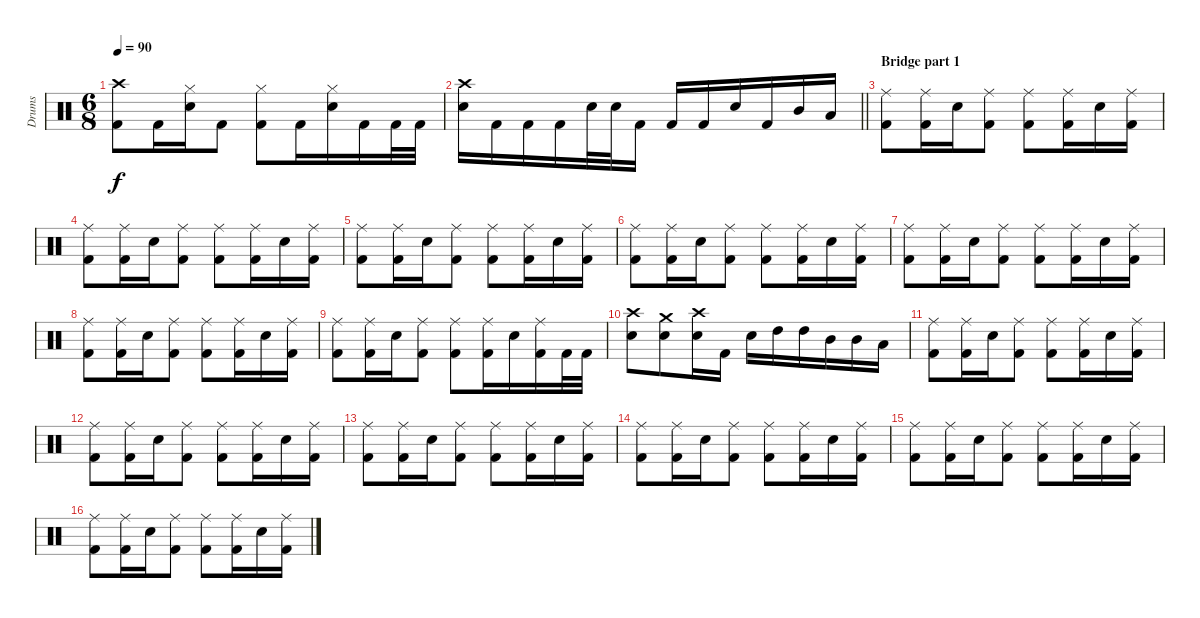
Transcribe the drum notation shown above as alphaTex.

\track ("Drums" "Drums") {instrument percussion}
\staff {score}
\articulation defaults
\ts (6 8)
\tempo 90
\clef neutral
\ks c
("Crash high (hit)" "Kick (hit) 2").8{dy f} "Kick (hit) 2".16 ("Hi-Hat (closed)" "Snare (hit) 2").16 "Kick (hit) 2".8 ("Hi-Hat (closed)" "Kick (hit) 2").8 "Kick (hit) 2".16 ("Hi-Hat (closed)" "Snare (hit) 2").16 "Kick (hit) 2".16 "Kick (hit) 2".32 "Kick (hit) 2".32 |
\barLineRight lightlight
("Crash high (hit)" "Snare (hit) 2").16 "Kick (hit) 2".16 "Kick (hit) 2".16 "Kick (hit) 2".16 "Snare (hit) 2".32 "Snare (hit) 2".32 "Kick (hit) 2".16 "Kick (hit) 2".16 "Kick (hit) 2".16 "Snare (hit) 2".16 "Kick (hit) 2".16 "Mid Tom (hit)".16 "Low Tom (hit)".16 |
\section ("" "Bridge part 1")
("Ride (middle)" "Kick (hit) 2").8 ("Ride (middle)" "Kick (hit) 2").16 "Snare (hit) 2".16 ("Ride (middle)" "Kick (hit) 2").8 ("Ride (middle)" "Kick (hit) 2").8 ("Ride (middle)" "Kick (hit) 2").16 "Snare (hit) 2".16 ("Ride (middle)" "Kick (hit) 2").16 |
("Ride (middle)" "Kick (hit) 2").8 ("Ride (middle)" "Kick (hit) 2").16 "Snare (hit) 2".16 ("Ride (middle)" "Kick (hit) 2").8 ("Ride (middle)" "Kick (hit) 2").8 ("Ride (middle)" "Kick (hit) 2").16 "Snare (hit) 2".16 ("Ride (middle)" "Kick (hit) 2").16 |
("Ride (middle)" "Kick (hit) 2").8 ("Ride (middle)" "Kick (hit) 2").16 "Snare (hit) 2".16 ("Ride (middle)" "Kick (hit) 2").8 ("Ride (middle)" "Kick (hit) 2").8 ("Ride (middle)" "Kick (hit) 2").16 "Snare (hit) 2".16 ("Ride (middle)" "Kick (hit) 2").16 |
("Ride (middle)" "Kick (hit) 2").8 ("Ride (middle)" "Kick (hit) 2").16 "Snare (hit) 2".16 ("Ride (middle)" "Kick (hit) 2").8 ("Ride (middle)" "Kick (hit) 2").8 ("Ride (middle)" "Kick (hit) 2").16 "Snare (hit) 2".16 ("Ride (middle)" "Kick (hit) 2").16 |
("Ride (middle)" "Kick (hit) 2").8 ("Ride (middle)" "Kick (hit) 2").16 "Snare (hit) 2".16 ("Ride (middle)" "Kick (hit) 2").8 ("Ride (middle)" "Kick (hit) 2").8 ("Ride (middle)" "Kick (hit) 2").16 "Snare (hit) 2".16 ("Ride (middle)" "Kick (hit) 2").16 |
("Ride (middle)" "Kick (hit) 2").8 ("Ride (middle)" "Kick (hit) 2").16 "Snare (hit) 2".16 ("Ride (middle)" "Kick (hit) 2").8 ("Ride (middle)" "Kick (hit) 2").8 ("Ride (middle)" "Kick (hit) 2").16 "Snare (hit) 2".16 ("Ride (middle)" "Kick (hit) 2").16 |
("Ride (middle)" "Kick (hit) 2").8 ("Ride (middle)" "Kick (hit) 2").16 "Snare (hit) 2".16 ("Ride (middle)" "Kick (hit) 2").8 ("Ride (middle)" "Kick (hit) 2").8 ("Ride (middle)" "Kick (hit) 2").16 "Snare (hit) 2".16 ("Ride (middle)" "Kick (hit) 2").16 "Kick (hit) 2".32 "Kick (hit) 2".32 |
("Crash high (hit)" "Snare (hit) 2").8 ("Crash medium (hit)" "Snare (hit) 2").8 ("Crash high (hit)" "Snare (hit) 2").16 "Kick (hit) 2".16 "Snare (hit) 2".16 "High Tom (hit)".16 "High Tom (hit)".16 "Mid Tom (hit)".16 "Mid Tom (hit)".16 "Low Tom (hit)".16 |
("Ride (middle)" "Kick (hit) 2").8 ("Ride (middle)" "Kick (hit) 2").16 "Snare (hit) 2".16 ("Ride (middle)" "Kick (hit) 2").8 ("Ride (middle)" "Kick (hit) 2").8 ("Ride (middle)" "Kick (hit) 2").16 "Snare (hit) 2".16 ("Ride (middle)" "Kick (hit) 2").16 |
("Ride (middle)" "Kick (hit) 2").8 ("Ride (middle)" "Kick (hit) 2").16 "Snare (hit) 2".16 ("Ride (middle)" "Kick (hit) 2").8 ("Ride (middle)" "Kick (hit) 2").8 ("Ride (middle)" "Kick (hit) 2").16 "Snare (hit) 2".16 ("Ride (middle)" "Kick (hit) 2").16 |
("Ride (middle)" "Kick (hit) 2").8 ("Ride (middle)" "Kick (hit) 2").16 "Snare (hit) 2".16 ("Ride (middle)" "Kick (hit) 2").8 ("Ride (middle)" "Kick (hit) 2").8 ("Ride (middle)" "Kick (hit) 2").16 "Snare (hit) 2".16 ("Ride (middle)" "Kick (hit) 2").16 |
("Ride (middle)" "Kick (hit) 2").8 ("Ride (middle)" "Kick (hit) 2").16 "Snare (hit) 2".16 ("Ride (middle)" "Kick (hit) 2").8 ("Ride (middle)" "Kick (hit) 2").8 ("Ride (middle)" "Kick (hit) 2").16 "Snare (hit) 2".16 ("Ride (middle)" "Kick (hit) 2").16 |
("Ride (middle)" "Kick (hit) 2").8 ("Ride (middle)" "Kick (hit) 2").16 "Snare (hit) 2".16 ("Ride (middle)" "Kick (hit) 2").8 ("Ride (middle)" "Kick (hit) 2").8 ("Ride (middle)" "Kick (hit) 2").16 "Snare (hit) 2".16 ("Ride (middle)" "Kick (hit) 2").16 |
("Ride (middle)" "Kick (hit) 2").8 ("Ride (middle)" "Kick (hit) 2").16 "Snare (hit) 2".16 ("Ride (middle)" "Kick (hit) 2").8 ("Ride (middle)" "Kick (hit) 2").8 ("Ride (middle)" "Kick (hit) 2").16 "Snare (hit) 2".16 ("Ride (middle)" "Kick (hit) 2").16
